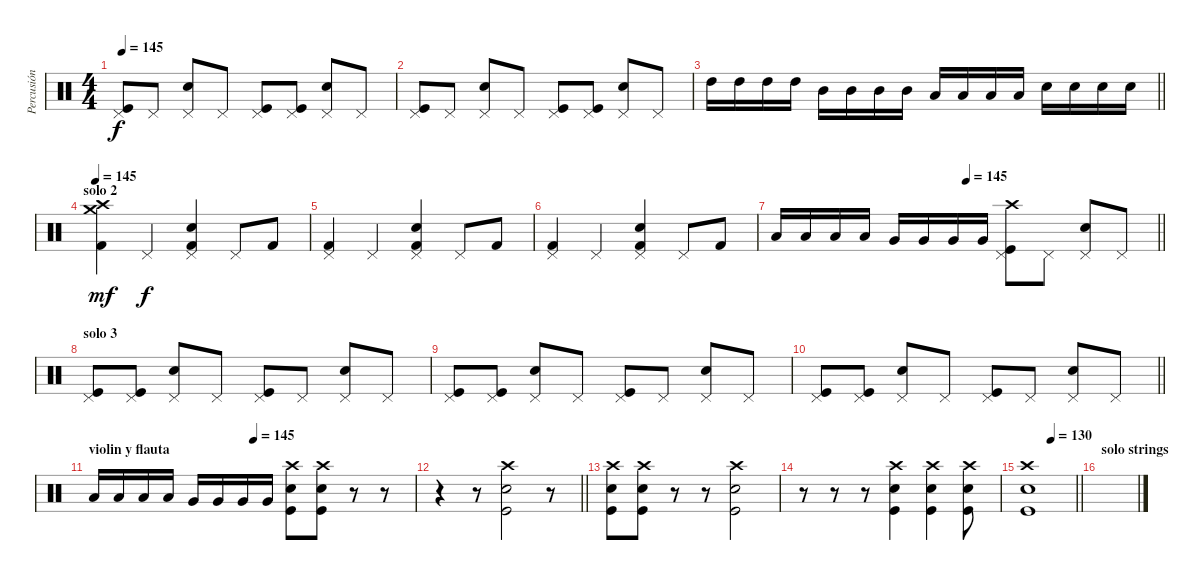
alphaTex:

\track ("Percusión" "Percusión") {instrument percussion}
\staff {score}
\articulation defaults
\ts (4 4)
\tempo 145
\clef neutral
\ks c
("Kick (hit)" "Pedal Hi-Hat (hit)").8{dy f} "Pedal Hi-Hat (hit)".8 ("Snare (hit) 2" "Pedal Hi-Hat (hit)").8 "Pedal Hi-Hat (hit)".8 ("Kick (hit)" "Pedal Hi-Hat (hit)").8 ("Kick (hit)" "Pedal Hi-Hat (hit)").8 ("Snare (hit) 2" "Pedal Hi-Hat (hit)").8 "Pedal Hi-Hat (hit)".8 |
("Kick (hit)" "Pedal Hi-Hat (hit)").8 "Pedal Hi-Hat (hit)".8 ("Snare (hit) 2" "Pedal Hi-Hat (hit)").8 "Pedal Hi-Hat (hit)".8 ("Kick (hit)" "Pedal Hi-Hat (hit)").8 ("Kick (hit)" "Pedal Hi-Hat (hit)").8 ("Snare (hit) 2" "Pedal Hi-Hat (hit)").8 "Pedal Hi-Hat (hit)".8 |
\barLineRight lightlight "High Tom (hit)".16 "High Tom (hit)".16 "High Tom (hit)".16 "High Tom (hit)".16 "Mid Tom (hit)".16 "Mid Tom (hit)".16 "Mid Tom (hit)".16 "Mid Tom (hit)".16 "Low Tom (hit)".16 "Low Tom (hit)".16 "Low Tom (hit)".16 "Low Tom (hit)".16 "Snare (hit) 2".16 "Snare (hit) 2".16 "Snare (hit) 2".16 "Snare (hit) 2".16
|
\section ("" "solo 2")
\tempo 145
("Crash medium (hit)" "Crash high (hit)" "Kick (hit) 2").4{dy mf} "Pedal Hi-Hat (hit)".4{dy f} ("Pedal Hi-Hat (hit)" "Electric Snare (hit)" "Kick (hit) 2").4 "Pedal Hi-Hat (hit)".8 "Kick (hit) 2".8 |
("Pedal Hi-Hat (hit)" "Kick (hit) 2").4 "Pedal Hi-Hat (hit)".4 ("Pedal Hi-Hat (hit)" "Electric Snare (hit)" "Kick (hit) 2").4 "Pedal Hi-Hat (hit)".8 "Kick (hit) 2".8 |
("Pedal Hi-Hat (hit)" "Kick (hit) 2").4 "Pedal Hi-Hat (hit)".4 ("Pedal Hi-Hat (hit)" "Electric Snare (hit)" "Kick (hit) 2").4 "Pedal Hi-Hat (hit)".8 "Kick (hit) 2".8 |
\tempo (145 0.5)
\barLineRight lightlight "Low Tom (hit)".16 "Low Tom (hit)".16 "Low Tom (hit)".16 "Low Tom (hit)".16 "Very Low Tom (hit)".16 "Very Low Tom (hit)".16 "Very Low Tom (hit)".16 "Very Low Tom (hit)".16
("Crash high (hit)" "Kick (hit)" "Pedal Hi-Hat (hit)").8 "Pedal Hi-Hat (hit)".8 ("Snare (hit) 2" "Pedal Hi-Hat (hit)").8 "Pedal Hi-Hat (hit)".8 |
\section ("" "solo 3")
("Kick (hit)" "Pedal Hi-Hat (hit)").8 ("Kick (hit)" "Pedal Hi-Hat (hit)").8 ("Snare (hit) 2" "Pedal Hi-Hat (hit)").8 "Pedal Hi-Hat (hit)".8 ("Kick (hit)" "Pedal Hi-Hat (hit)").8 "Pedal Hi-Hat (hit)".8 ("Snare (hit) 2" "Pedal Hi-Hat (hit)").8 "Pedal Hi-Hat (hit)".8 |
("Kick (hit)" "Pedal Hi-Hat (hit)").8 ("Kick (hit)" "Pedal Hi-Hat (hit)").8 ("Snare (hit) 2" "Pedal Hi-Hat (hit)").8 "Pedal Hi-Hat (hit)".8 ("Kick (hit)" "Pedal Hi-Hat (hit)").8 "Pedal Hi-Hat (hit)".8 ("Snare (hit) 2" "Pedal Hi-Hat (hit)").8 "Pedal Hi-Hat (hit)".8 |
\barLineRight lightlight
("Kick (hit)" "Pedal Hi-Hat (hit)").8 ("Kick (hit)" "Pedal Hi-Hat (hit)").8 ("Snare (hit) 2" "Pedal Hi-Hat (hit)").8 "Pedal Hi-Hat (hit)".8 ("Kick (hit)" "Pedal Hi-Hat (hit)").8 "Pedal Hi-Hat (hit)".8 ("Snare (hit) 2" "Pedal Hi-Hat (hit)").8 "Pedal Hi-Hat (hit)".8 |
\section ("" "violin y flauta")
\tempo (145 0.5)
"Low Tom (hit)".16 "Low Tom (hit)".16 "Low Tom (hit)".16 "Low Tom (hit)".16 "Very Low Tom (hit)".16 "Very Low Tom (hit)".16 "Very Low Tom (hit)".16 "Very Low Tom (hit)".16 ("Kick (hit)" "Snare (hit) 2" "Crash high (hit)").8 ("Snare (hit) 2" "Kick (hit)" "Crash high (hit)").8 r.8 r.8 |
\barLineRight lightlight
r.4 r.8 ("Snare (hit) 2" "Kick (hit)" "Crash high (hit)").2 r.8 |
("Crash high (hit)" "Kick (hit)" "Snare (hit) 2").8 ("Snare (hit) 2" "Kick (hit)" "Crash high (hit)").8 r.8 r.8 ("Crash high (hit)" "Snare (hit) 2" "Kick (hit)").2 |
r.8 r.8 r.8 ("Crash high (hit)" "Kick (hit)" "Snare (hit) 2").4 ("Snare (hit) 2" "Kick (hit)" "Crash high (hit)").4 ("Crash high (hit)" "Kick (hit)" "Snare (hit) 2").8 |
\tempo (130 0.5)
\barLineRight lightlight
("Snare (hit) 2" "Kick (hit)" "Crash high (hit)").1 |
\section ("" "solo strings")
